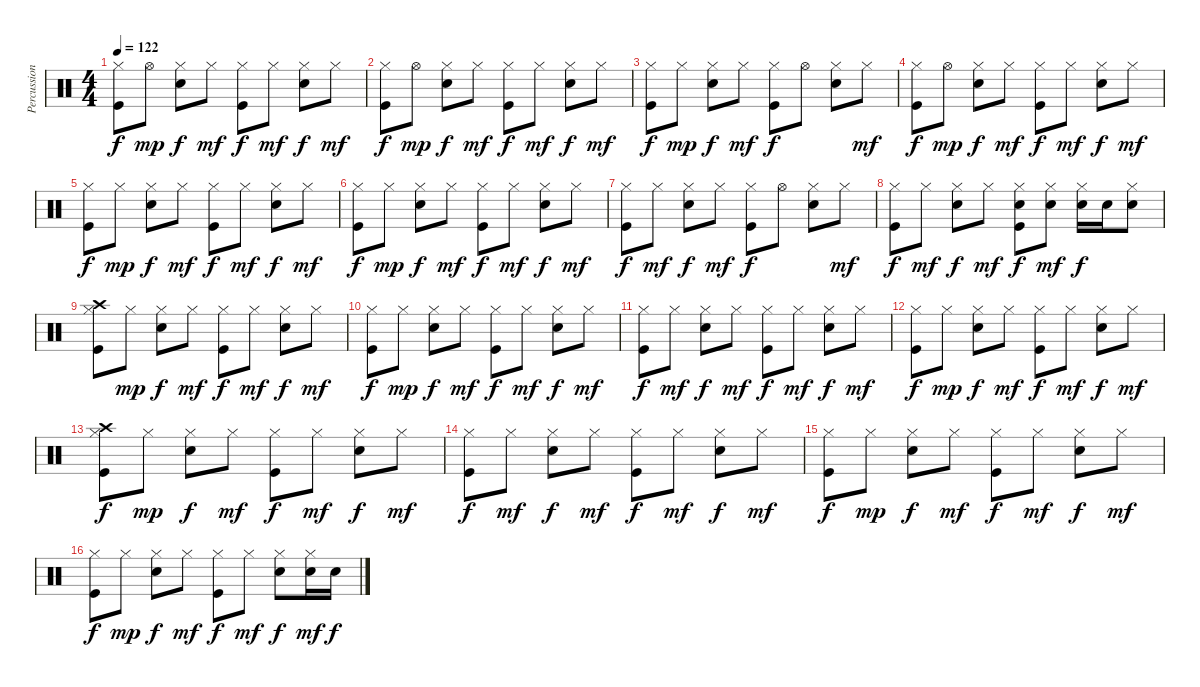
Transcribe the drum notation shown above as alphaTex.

\track ("Percussioni" "Percussion") {instrument percussion}
\staff {score}
\articulation defaults
\ts (4 4)
\tempo 122
\clef neutral
\ks c
("Hi-Hat (closed)" "Kick (hit)").8{dy f} "Hi-Hat (open)".8{dy mp} ("Hi-Hat (closed)" "Snare (hit) 2").8{dy f} "Hi-Hat (closed)".8{dy mf} ("Hi-Hat (closed)" "Kick (hit)").8{dy f} "Hi-Hat (closed)".8{dy mf} ("Hi-Hat (closed)" "Snare (hit) 2").8{dy f} "Hi-Hat (closed)".8{dy mf} |
("Hi-Hat (closed)" "Kick (hit)").8{dy f} "Hi-Hat (open)".8{dy mp} ("Hi-Hat (closed)" "Snare (hit) 2").8{dy f} "Hi-Hat (closed)".8{dy mf} ("Hi-Hat (closed)" "Kick (hit)").8{dy f} "Hi-Hat (closed)".8{dy mf} ("Hi-Hat (closed)" "Snare (hit) 2").8{dy f} "Hi-Hat (closed)".8{dy mf} |
("Hi-Hat (closed)" "Kick (hit)").8{dy f} "Hi-Hat (closed)".8{dy mp} ("Hi-Hat (closed)" "Snare (hit) 2").8{dy f} "Hi-Hat (closed)".8{dy mf} ("Hi-Hat (closed)" "Kick (hit)").8{dy f} "Hi-Hat (open)".8 ("Hi-Hat (closed)" "Snare (hit) 2").8 "Hi-Hat (closed)".8{dy mf} |
("Hi-Hat (closed)" "Kick (hit)").8{dy f} "Hi-Hat (open)".8{dy mp} ("Hi-Hat (closed)" "Snare (hit) 2").8{dy f} "Hi-Hat (closed)".8{dy mf} ("Hi-Hat (closed)" "Kick (hit)").8{dy f} "Hi-Hat (closed)".8{dy mf} ("Hi-Hat (closed)" "Snare (hit) 2").8{dy f} "Hi-Hat (closed)".8{dy mf} |
("Hi-Hat (closed)" "Kick (hit)").8{dy f} "Hi-Hat (closed)".8{dy mp} ("Hi-Hat (closed)" "Snare (hit) 2").8{dy f} "Hi-Hat (closed)".8{dy mf} ("Hi-Hat (closed)" "Kick (hit)").8{dy f} "Hi-Hat (closed)".8{dy mf} ("Hi-Hat (closed)" "Snare (hit) 2").8{dy f} "Hi-Hat (closed)".8{dy mf} |
("Hi-Hat (closed)" "Kick (hit)").8{dy f} "Hi-Hat (closed)".8{dy mp} ("Hi-Hat (closed)" "Snare (hit) 2").8{dy f} "Hi-Hat (closed)".8{dy mf} ("Hi-Hat (closed)" "Kick (hit)").8{dy f} "Hi-Hat (closed)".8{dy mf} ("Hi-Hat (closed)" "Snare (hit) 2").8{dy f} "Hi-Hat (closed)".8{dy mf} |
("Hi-Hat (closed)" "Kick (hit)").8{dy f} "Hi-Hat (closed)".8{dy mf} ("Hi-Hat (closed)" "Snare (hit) 2").8{dy f} "Hi-Hat (closed)".8{dy mf} ("Hi-Hat (closed)" "Kick (hit)").8{dy f} "Hi-Hat (open)".8 ("Hi-Hat (closed)" "Snare (hit) 2").8 "Hi-Hat (closed)".8{dy mf} |
("Hi-Hat (closed)" "Kick (hit)").8{dy f} "Hi-Hat (closed)".8{dy mf} ("Hi-Hat (closed)" "Snare (hit) 2").8{dy f} "Hi-Hat (closed)".8{dy mf} ("Hi-Hat (closed)" "Snare (hit) 2" "Kick (hit)").8{dy f} ("Hi-Hat (closed)" "Snare (hit) 2").8{dy mf} ("Hi-Hat (closed)" "Snare (hit) 2").16{dy f} "Snare (hit) 2".16 ("Hi-Hat (closed)" "Snare (hit) 2").8 |
("Crash high (hit)" "Hi-Hat (closed)" "Kick (hit)").8 "Hi-Hat (closed)".8{dy mp} ("Hi-Hat (closed)" "Snare (hit) 2").8{dy f} "Hi-Hat (closed)".8{dy mf} ("Hi-Hat (closed)" "Kick (hit)").8{dy f} "Hi-Hat (closed)".8{dy mf} ("Hi-Hat (closed)" "Snare (hit) 2").8{dy f} "Hi-Hat (closed)".8{dy mf} |
("Hi-Hat (closed)" "Kick (hit)").8{dy f} "Hi-Hat (closed)".8{dy mp} ("Hi-Hat (closed)" "Snare (hit) 2").8{dy f} "Hi-Hat (closed)".8{dy mf} ("Hi-Hat (closed)" "Kick (hit)").8{dy f} "Hi-Hat (closed)".8{dy mf} ("Hi-Hat (closed)" "Snare (hit) 2").8{dy f} "Hi-Hat (closed)".8{dy mf} |
("Hi-Hat (closed)" "Kick (hit)").8{dy f} "Hi-Hat (closed)".8{dy mf} ("Hi-Hat (closed)" "Snare (hit) 2").8{dy f} "Hi-Hat (closed)".8{dy mf} ("Hi-Hat (closed)" "Kick (hit)").8{dy f} "Hi-Hat (closed)".8{dy mf} ("Hi-Hat (closed)" "Snare (hit) 2").8{dy f} "Hi-Hat (closed)".8{dy mf} |
("Hi-Hat (closed)" "Kick (hit)").8{dy f} "Hi-Hat (closed)".8{dy mp} ("Hi-Hat (closed)" "Snare (hit) 2").8{dy f} "Hi-Hat (closed)".8{dy mf} ("Hi-Hat (closed)" "Kick (hit)").8{dy f} "Hi-Hat (closed)".8{dy mf} ("Hi-Hat (closed)" "Snare (hit) 2").8{dy f} "Hi-Hat (closed)".8{dy mf} |
("Crash high (hit)" "Hi-Hat (closed)" "Kick (hit)").8{dy f} "Hi-Hat (closed)".8{dy mp} ("Hi-Hat (closed)" "Snare (hit) 2").8{dy f} "Hi-Hat (closed)".8{dy mf} ("Hi-Hat (closed)" "Kick (hit)").8{dy f} "Hi-Hat (closed)".8{dy mf} ("Hi-Hat (closed)" "Snare (hit) 2").8{dy f} "Hi-Hat (closed)".8{dy mf} |
("Hi-Hat (closed)" "Kick (hit)").8{dy f} "Hi-Hat (closed)".8{dy mf} ("Hi-Hat (closed)" "Snare (hit) 2").8{dy f} "Hi-Hat (closed)".8{dy mf} ("Hi-Hat (closed)" "Kick (hit)").8{dy f} "Hi-Hat (closed)".8{dy mf} ("Hi-Hat (closed)" "Snare (hit) 2").8{dy f} "Hi-Hat (closed)".8{dy mf} |
("Hi-Hat (closed)" "Kick (hit)").8{dy f} "Hi-Hat (closed)".8{dy mp} ("Hi-Hat (closed)" "Snare (hit) 2").8{dy f} "Hi-Hat (closed)".8{dy mf} ("Hi-Hat (closed)" "Kick (hit)").8{dy f} "Hi-Hat (closed)".8{dy mf} ("Hi-Hat (closed)" "Snare (hit) 2").8{dy f} "Hi-Hat (closed)".8{dy mf} |
("Hi-Hat (closed)" "Kick (hit)").8{dy f} "Hi-Hat (closed)".8{dy mp} ("Hi-Hat (closed)" "Snare (hit) 2").8{dy f} "Hi-Hat (closed)".8{dy mf} ("Hi-Hat (closed)" "Kick (hit)").8{dy f} "Hi-Hat (closed)".8{dy mf} ("Hi-Hat (closed)" "Snare (hit) 2").8{dy f} ("Hi-Hat (closed)" "Snare (hit) 2").16{dy mf} "Snare (hit) 2".16{dy f}
